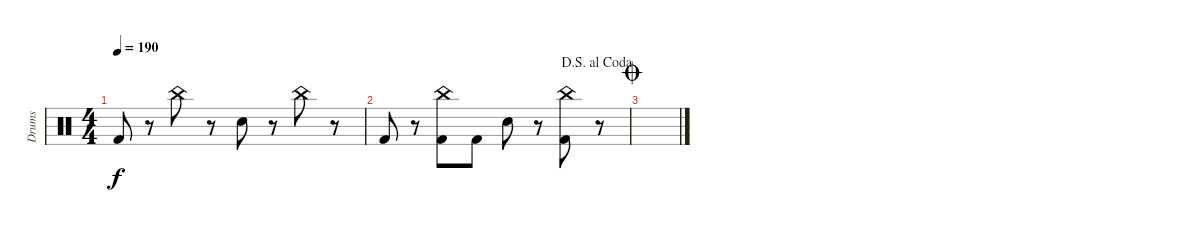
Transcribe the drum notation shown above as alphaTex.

\track ("Drums" "Drums") {instrument percussion}
\staff {score}
\articulation defaults
\ts (4 4)
\tempo 190
\clef neutral
\ks c "Kick (hit) 2".8{dy f}
r.8 "China (hit)".8 r.8 "Electric Snare (hit)".8 r.8 "China (hit)".8 r.8 |
\jump dalsegnoalcoda "Kick (hit) 2".8
r.8 ("China (hit)" "Kick (hit) 2").8 "Kick (hit) 2".8 "Electric Snare (hit)".8 r.8 ("China (hit)" "Kick (hit) 2").8 r.8 |
\jump coda
